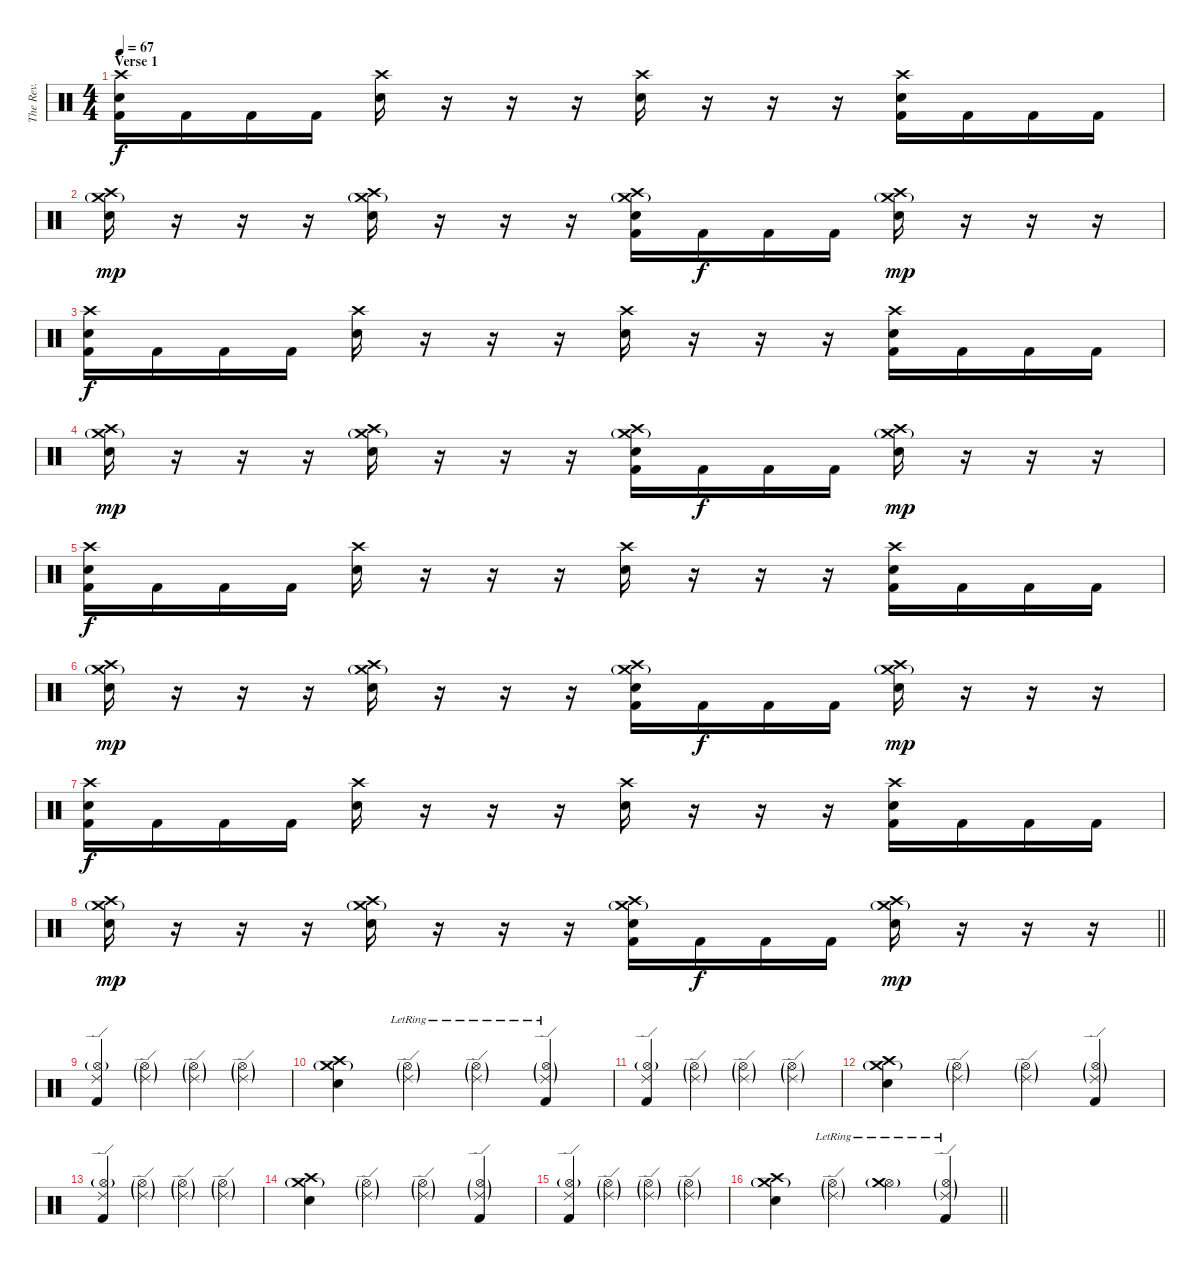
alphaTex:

\track ("The Rev." "The Rev.") {instrument percussion}
\staff {score}
\articulation defaults
\ts (4 4)
\section ("" "Verse 1")
\tempo 67
\clef neutral
\ks c
("Crash high (hit)" "Electric Snare (hit)" "Kick (hit) 2").16{dy f} "Kick (hit) 2".16 "Kick (hit) 2".16 "Kick (hit) 2".16 ("Crash high (hit)" "Electric Snare (hit)").16 r.16 r.16 r.16 ("Crash high (hit)" "Electric Snare (hit)").16 r.16 r.16 r.16 ("Crash high (hit)" "Electric Snare (hit)" "Kick (hit) 2").16 "Kick (hit) 2".16 "Kick (hit) 2".16 "Kick (hit) 2".16 |
("Crash high (hit)" "Crash medium (hit)"{g} "Electric Snare (hit)").16{dy mp} r.16 r.16 r.16 ("Crash high (hit)" "Crash medium (hit)"{g} "Electric Snare (hit)").16 r.16 r.16 r.16 ("Crash high (hit)" "Crash medium (hit)"{g} "Electric Snare (hit)" "Kick (hit) 2").16 "Kick (hit) 2".16{dy f} "Kick (hit) 2".16 "Kick (hit) 2".16 ("Crash high (hit)" "Crash medium (hit)"{g} "Electric Snare (hit)").16{dy mp} r.16 r.16 r.16 |
("Crash high (hit)" "Electric Snare (hit)" "Kick (hit) 2").16{dy f} "Kick (hit) 2".16 "Kick (hit) 2".16 "Kick (hit) 2".16 ("Crash high (hit)" "Electric Snare (hit)").16 r.16 r.16 r.16 ("Crash high (hit)" "Electric Snare (hit)").16 r.16 r.16 r.16 ("Crash high (hit)" "Electric Snare (hit)" "Kick (hit) 2").16 "Kick (hit) 2".16 "Kick (hit) 2".16 "Kick (hit) 2".16 |
("Crash high (hit)" "Crash medium (hit)"{g} "Electric Snare (hit)").16{dy mp} r.16 r.16 r.16 ("Crash high (hit)" "Crash medium (hit)"{g} "Electric Snare (hit)").16 r.16 r.16 r.16 ("Crash high (hit)" "Crash medium (hit)"{g} "Electric Snare (hit)" "Kick (hit) 2").16 "Kick (hit) 2".16{dy f} "Kick (hit) 2".16 "Kick (hit) 2".16 ("Crash high (hit)" "Crash medium (hit)"{g} "Electric Snare (hit)").16{dy mp} r.16 r.16 r.16 |
("Crash high (hit)" "Electric Snare (hit)" "Kick (hit) 2").16{dy f} "Kick (hit) 2".16 "Kick (hit) 2".16 "Kick (hit) 2".16 ("Crash high (hit)" "Electric Snare (hit)").16 r.16 r.16 r.16 ("Crash high (hit)" "Electric Snare (hit)").16 r.16 r.16 r.16 ("Crash high (hit)" "Electric Snare (hit)" "Kick (hit) 2").16 "Kick (hit) 2".16 "Kick (hit) 2".16 "Kick (hit) 2".16 |
("Crash high (hit)" "Crash medium (hit)"{g} "Electric Snare (hit)").16{dy mp} r.16 r.16 r.16 ("Crash high (hit)" "Crash medium (hit)"{g} "Electric Snare (hit)").16 r.16 r.16 r.16 ("Crash high (hit)" "Crash medium (hit)"{g} "Electric Snare (hit)" "Kick (hit) 2").16 "Kick (hit) 2".16{dy f} "Kick (hit) 2".16 "Kick (hit) 2".16 ("Crash high (hit)" "Crash medium (hit)"{g} "Electric Snare (hit)").16{dy mp} r.16 r.16 r.16 |
("Crash high (hit)" "Electric Snare (hit)" "Kick (hit) 2").16{dy f} "Kick (hit) 2".16 "Kick (hit) 2".16 "Kick (hit) 2".16 ("Crash high (hit)" "Electric Snare (hit)").16 r.16 r.16 r.16 ("Crash high (hit)" "Electric Snare (hit)").16 r.16 r.16 r.16 ("Crash high (hit)" "Electric Snare (hit)" "Kick (hit) 2").16 "Kick (hit) 2".16 "Kick (hit) 2".16 "Kick (hit) 2".16 |
\barLineRight lightlight
("Crash high (hit)" "Crash medium (hit)"{g} "Electric Snare (hit)").16{dy mp} r.16 r.16 r.16 ("Crash high (hit)" "Crash medium (hit)"{g} "Electric Snare (hit)").16 r.16 r.16 r.16 ("Crash high (hit)" "Crash medium (hit)"{g} "Electric Snare (hit)" "Kick (hit) 2").16 "Kick (hit) 2".16{dy f} "Kick (hit) 2".16 "Kick (hit) 2".16 ("Crash high (hit)" "Crash medium (hit)"{g} "Electric Snare (hit)").16{dy mp} r.16 r.16 r.16 |
\section ("" " ")
("Hi-Hat (open)"{g} "Ride (edge) 2" "Kick (hit) 2").4 ("Hi-Hat (open)"{g} "Ride (edge) 2"{g}).4 ("Hi-Hat (open)"{g} "Ride (edge) 2"{g}).4 ("Hi-Hat (open)"{g} "Ride (edge) 2"{g}).4 |
("Crash medium (hit)"{g} "Crash high (hit)" "Electric Snare (hit)").4 ("Hi-Hat (open)"{g} "Ride (edge) 2"{g lr}).4 ("Hi-Hat (open)"{g} "Ride (edge) 2"{g lr}).4 ("Hi-Hat (open)"{g} "Ride (edge) 2"{g lr} "Kick (hit) 2").4 |
("Hi-Hat (open)"{g} "Ride (edge) 2" "Kick (hit) 2").4 ("Hi-Hat (open)"{g} "Ride (edge) 2"{g}).4 ("Hi-Hat (open)"{g} "Ride (edge) 2"{g}).4 ("Hi-Hat (open)"{g} "Ride (edge) 2"{g}).4 |
("Crash medium (hit)"{g} "Crash high (hit)" "Electric Snare (hit)").4 ("Hi-Hat (open)"{g} "Ride (edge) 2"{g}).4 ("Hi-Hat (open)"{g} "Ride (edge) 2"{g}).4 ("Hi-Hat (open)"{g} "Ride (edge) 2"{g} "Kick (hit) 2").4 |
("Hi-Hat (open)"{g} "Ride (edge) 2" "Kick (hit) 2").4 ("Hi-Hat (open)"{g} "Ride (edge) 2"{g}).4 ("Hi-Hat (open)"{g} "Ride (edge) 2"{g}).4 ("Hi-Hat (open)"{g} "Ride (edge) 2"{g}).4 |
("Crash medium (hit)"{g} "Crash high (hit)" "Electric Snare (hit)").4 ("Hi-Hat (open)"{g} "Ride (edge) 2"{g}).4 ("Hi-Hat (open)"{g} "Ride (edge) 2"{g}).4 ("Hi-Hat (open)"{g} "Ride (edge) 2"{g} "Kick (hit) 2").4 |
("Hi-Hat (open)"{g} "Ride (edge) 2" "Kick (hit) 2").4 ("Hi-Hat (open)"{g} "Ride (edge) 2"{g}).4 ("Hi-Hat (open)"{g} "Ride (edge) 2"{g}).4 ("Hi-Hat (open)"{g} "Ride (edge) 2"{g}).4 |
\barLineRight lightlight
("Crash medium (hit)"{g} "Crash high (hit)" "Electric Snare (hit)").4 ("Hi-Hat (open)"{g} "Ride (edge) 2"{g lr}).4 ("Hi-Hat (open)"{g} "Crash medium (hit)"{lr}).4 ("Hi-Hat (open)"{g} "Ride (edge) 2"{g lr} "Kick (hit) 2").4
